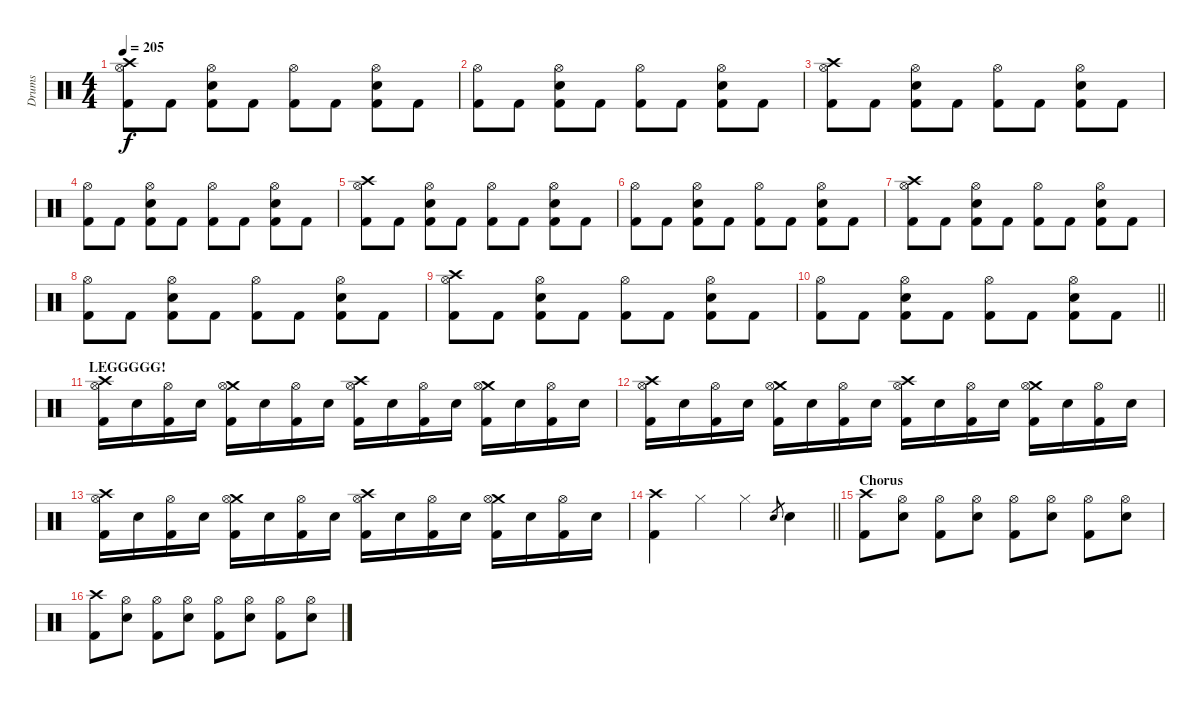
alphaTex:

\track ("Drums" "Drums") {instrument percussion}
\staff {score}
\articulation defaults
\ts (4 4)
\tempo 205
\clef neutral
\ks c
("Crash high (hit)" "Hi-Hat (open)" "Kick (hit) 2").8{dy f} "Kick (hit) 2".8 ("Hi-Hat (open)" "Snare (hit) 2" "Kick (hit) 2").8 "Kick (hit) 2".8 ("Hi-Hat (open)" "Kick (hit) 2").8 "Kick (hit) 2".8 ("Hi-Hat (open)" "Snare (hit) 2" "Kick (hit) 2").8 "Kick (hit) 2".8 |
("Hi-Hat (open)" "Kick (hit) 2").8 "Kick (hit) 2".8 ("Hi-Hat (open)" "Snare (hit) 2" "Kick (hit) 2").8 "Kick (hit) 2".8 ("Hi-Hat (open)" "Kick (hit) 2").8 "Kick (hit) 2".8 ("Hi-Hat (open)" "Snare (hit) 2" "Kick (hit) 2").8 "Kick (hit) 2".8 |
("Crash high (hit)" "Hi-Hat (open)" "Kick (hit) 2").8 "Kick (hit) 2".8 ("Hi-Hat (open)" "Snare (hit) 2" "Kick (hit) 2").8 "Kick (hit) 2".8 ("Hi-Hat (open)" "Kick (hit) 2").8 "Kick (hit) 2".8 ("Hi-Hat (open)" "Snare (hit) 2" "Kick (hit) 2").8 "Kick (hit) 2".8 |
("Hi-Hat (open)" "Kick (hit) 2").8 "Kick (hit) 2".8 ("Hi-Hat (open)" "Snare (hit) 2" "Kick (hit) 2").8 "Kick (hit) 2".8 ("Hi-Hat (open)" "Kick (hit) 2").8 "Kick (hit) 2".8 ("Hi-Hat (open)" "Snare (hit) 2" "Kick (hit) 2").8 "Kick (hit) 2".8 |
("Crash high (hit)" "Hi-Hat (open)" "Kick (hit) 2").8 "Kick (hit) 2".8 ("Hi-Hat (open)" "Snare (hit) 2" "Kick (hit) 2").8 "Kick (hit) 2".8 ("Hi-Hat (open)" "Kick (hit) 2").8 "Kick (hit) 2".8 ("Hi-Hat (open)" "Snare (hit) 2" "Kick (hit) 2").8 "Kick (hit) 2".8 |
("Hi-Hat (open)" "Kick (hit) 2").8 "Kick (hit) 2".8 ("Hi-Hat (open)" "Snare (hit) 2" "Kick (hit) 2").8 "Kick (hit) 2".8 ("Hi-Hat (open)" "Kick (hit) 2").8 "Kick (hit) 2".8 ("Hi-Hat (open)" "Snare (hit) 2" "Kick (hit) 2").8 "Kick (hit) 2".8 |
("Crash high (hit)" "Hi-Hat (open)" "Kick (hit) 2").8 "Kick (hit) 2".8 ("Hi-Hat (open)" "Snare (hit) 2" "Kick (hit) 2").8 "Kick (hit) 2".8 ("Hi-Hat (open)" "Kick (hit) 2").8 "Kick (hit) 2".8 ("Hi-Hat (open)" "Snare (hit) 2" "Kick (hit) 2").8 "Kick (hit) 2".8 |
("Hi-Hat (open)" "Kick (hit) 2").8 "Kick (hit) 2".8 ("Hi-Hat (open)" "Snare (hit) 2" "Kick (hit) 2").8 "Kick (hit) 2".8 ("Hi-Hat (open)" "Kick (hit) 2").8 "Kick (hit) 2".8 ("Hi-Hat (open)" "Snare (hit) 2" "Kick (hit) 2").8 "Kick (hit) 2".8 |
("Crash high (hit)" "Hi-Hat (open)" "Kick (hit) 2").8 "Kick (hit) 2".8 ("Hi-Hat (open)" "Snare (hit) 2" "Kick (hit) 2").8 "Kick (hit) 2".8 ("Hi-Hat (open)" "Kick (hit) 2").8 "Kick (hit) 2".8 ("Hi-Hat (open)" "Snare (hit) 2" "Kick (hit) 2").8 "Kick (hit) 2".8 |
\barLineRight lightlight
("Hi-Hat (open)" "Kick (hit) 2").8 "Kick (hit) 2".8 ("Hi-Hat (open)" "Snare (hit) 2" "Kick (hit) 2").8 "Kick (hit) 2".8 ("Hi-Hat (open)" "Kick (hit) 2").8 "Kick (hit) 2".8 ("Hi-Hat (open)" "Snare (hit) 2" "Kick (hit) 2").8 "Kick (hit) 2".8 |
\section ("" "LEGGGGG!")
("Crash high (hit)" "Hi-Hat (open)" "Kick (hit) 2").16 "Snare (hit) 2".16 ("Hi-Hat (open)" "Kick (hit) 2").16 "Snare (hit) 2".16 ("Crash medium (hit)" "Hi-Hat (open)" "Kick (hit) 2").16 "Snare (hit) 2".16 ("Hi-Hat (open)" "Kick (hit) 2").16 "Snare (hit) 2".16 ("Crash high (hit)" "Hi-Hat (open)" "Kick (hit) 2").16 "Snare (hit) 2".16 ("Hi-Hat (open)" "Kick (hit) 2").16 "Snare (hit) 2".16 ("Crash medium (hit)" "Hi-Hat (open)" "Kick (hit) 2").16 "Snare (hit) 2".16 ("Hi-Hat (open)" "Kick (hit) 2").16 "Snare (hit) 2".16 |
("Crash high (hit)" "Hi-Hat (open)" "Kick (hit) 2").16 "Snare (hit) 2".16 ("Hi-Hat (open)" "Kick (hit) 2").16 "Snare (hit) 2".16 ("Crash medium (hit)" "Hi-Hat (open)" "Kick (hit) 2").16 "Snare (hit) 2".16 ("Hi-Hat (open)" "Kick (hit) 2").16 "Snare (hit) 2".16 ("Crash high (hit)" "Hi-Hat (open)" "Kick (hit) 2").16 "Snare (hit) 2".16 ("Hi-Hat (open)" "Kick (hit) 2").16 "Snare (hit) 2".16 ("Crash medium (hit)" "Hi-Hat (open)" "Kick (hit) 2").16 "Snare (hit) 2".16 ("Hi-Hat (open)" "Kick (hit) 2").16 "Snare (hit) 2".16 |
("Crash high (hit)" "Hi-Hat (open)" "Kick (hit) 2").16 "Snare (hit) 2".16 ("Hi-Hat (open)" "Kick (hit) 2").16 "Snare (hit) 2".16 ("Crash medium (hit)" "Hi-Hat (open)" "Kick (hit) 2").16 "Snare (hit) 2".16 ("Hi-Hat (open)" "Kick (hit) 2").16 "Snare (hit) 2".16 ("Crash high (hit)" "Hi-Hat (open)" "Kick (hit) 2").16 "Snare (hit) 2".16 ("Hi-Hat (open)" "Kick (hit) 2").16 "Snare (hit) 2".16 ("Crash medium (hit)" "Hi-Hat (open)" "Kick (hit) 2").16 "Snare (hit) 2".16 ("Hi-Hat (open)" "Kick (hit) 2").16 "Snare (hit) 2".16 |
\barLineRight lightlight
("Crash high (hit)" "Kick (hit) 2").4 "Hi-Hat (closed)".4 "Hi-Hat (closed)".4 "Snare (hit) 2".8{gr} "Snare (hit) 2".4 |
\section ("" "Chorus")
("Crash high (hit)" "Kick (hit) 2").8 ("Hi-Hat (open)" "Snare (hit) 2").8 ("Hi-Hat (open)" "Kick (hit) 2").8 ("Hi-Hat (open)" "Snare (hit) 2").8 ("Hi-Hat (open)" "Kick (hit) 2").8 ("Hi-Hat (open)" "Snare (hit) 2").8 ("Hi-Hat (open)" "Kick (hit) 2").8 ("Hi-Hat (open)" "Snare (hit) 2").8 |
("Crash high (hit)" "Kick (hit) 2").8 ("Hi-Hat (open)" "Snare (hit) 2").8 ("Hi-Hat (open)" "Kick (hit) 2").8 ("Hi-Hat (open)" "Snare (hit) 2").8 ("Hi-Hat (open)" "Kick (hit) 2").8 ("Hi-Hat (open)" "Snare (hit) 2").8 ("Hi-Hat (open)" "Kick (hit) 2").8 ("Hi-Hat (open)" "Snare (hit) 2").8
